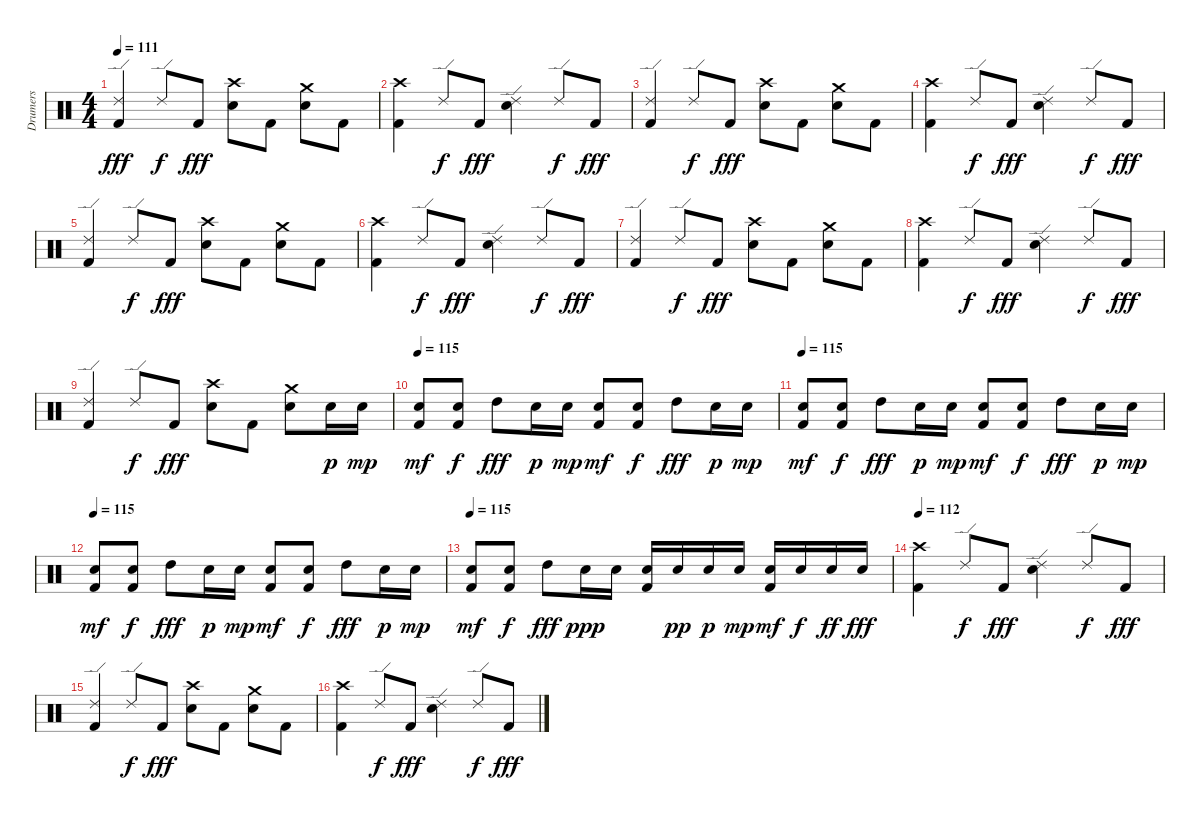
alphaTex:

\track ("Drumers" "Drumers") {instrument percussion}
\staff {score}
\articulation defaults
\ts (4 4)
\tempo 111
\clef neutral
\ks c
("Ride (edge) 2" "Kick (hit) 2").4{dy fff} "Ride (edge) 2".8{dy f} "Kick (hit) 2".8{dy fff} ("Crash high (hit)" "Electric Snare (hit)").8 "Kick (hit) 2".8 ("Crash medium (hit)" "Electric Snare (hit)").8 "Kick (hit) 2".8 |
("Crash high (hit)" "Kick (hit) 2").4 "Ride (edge) 2".8{dy f} "Kick (hit) 2".8{dy fff} ("Ride (edge) 2" "Electric Snare (hit)").4 "Ride (edge) 2".8{dy f} "Kick (hit) 2".8{dy fff} |
("Ride (edge) 2" "Kick (hit) 2").4 "Ride (edge) 2".8{dy f} "Kick (hit) 2".8{dy fff} ("Crash high (hit)" "Electric Snare (hit)").8 "Kick (hit) 2".8 ("Crash medium (hit)" "Electric Snare (hit)").8 "Kick (hit) 2".8 |
("Crash high (hit)" "Kick (hit) 2").4 "Ride (edge) 2".8{dy f} "Kick (hit) 2".8{dy fff} ("Ride (edge) 2" "Electric Snare (hit)").4 "Ride (edge) 2".8{dy f} "Kick (hit) 2".8{dy fff} |
("Ride (edge) 2" "Kick (hit) 2").4 "Ride (edge) 2".8{dy f} "Kick (hit) 2".8{dy fff} ("Crash high (hit)" "Electric Snare (hit)").8 "Kick (hit) 2".8 ("Crash medium (hit)" "Electric Snare (hit)").8 "Kick (hit) 2".8 |
("Crash high (hit)" "Kick (hit) 2").4 "Ride (edge) 2".8{dy f} "Kick (hit) 2".8{dy fff} ("Ride (edge) 2" "Electric Snare (hit)").4 "Ride (edge) 2".8{dy f} "Kick (hit) 2".8{dy fff} |
("Ride (edge) 2" "Kick (hit) 2").4 "Ride (edge) 2".8{dy f} "Kick (hit) 2".8{dy fff} ("Crash high (hit)" "Electric Snare (hit)").8 "Kick (hit) 2".8 ("Crash medium (hit)" "Electric Snare (hit)").8 "Kick (hit) 2".8 |
("Crash high (hit)" "Kick (hit) 2").4 "Ride (edge) 2".8{dy f} "Kick (hit) 2".8{dy fff} ("Ride (edge) 2" "Electric Snare (hit)").4 "Ride (edge) 2".8{dy f} "Kick (hit) 2".8{dy fff} |
("Ride (edge) 2" "Kick (hit) 2").4 "Ride (edge) 2".8{dy f} "Kick (hit) 2".8{dy fff} ("Crash high (hit)" "Electric Snare (hit)").8 "Kick (hit) 2".8 ("Crash medium (hit)" "Electric Snare (hit)").8 "Electric Snare (hit)".16{dy p} "Electric Snare (hit)".16{dy mp} |
\tempo 115
("Electric Snare (hit)" "Kick (hit) 2").8{dy mf} ("Electric Snare (hit)" "Kick (hit) 2").8{dy f} "High Tom (hit)".8{dy fff} "Electric Snare (hit)".16{dy p} "Electric Snare (hit)".16{dy mp} ("Electric Snare (hit)" "Kick (hit) 2").8{dy mf} ("Electric Snare (hit)" "Kick (hit) 2").8{dy f} "High Tom (hit)".8{dy fff} "Electric Snare (hit)".16{dy p} "Electric Snare (hit)".16{dy mp} |
\tempo 115
("Electric Snare (hit)" "Kick (hit) 2").8{dy mf} ("Electric Snare (hit)" "Kick (hit) 2").8{dy f} "High Tom (hit)".8{dy fff} "Electric Snare (hit)".16{dy p} "Electric Snare (hit)".16{dy mp} ("Electric Snare (hit)" "Kick (hit) 2").8{dy mf} ("Electric Snare (hit)" "Kick (hit) 2").8{dy f} "High Tom (hit)".8{dy fff} "Electric Snare (hit)".16{dy p} "Electric Snare (hit)".16{dy mp} |
\tempo 115
("Electric Snare (hit)" "Kick (hit) 2").8{dy mf} ("Electric Snare (hit)" "Kick (hit) 2").8{dy f} "High Tom (hit)".8{dy fff} "Electric Snare (hit)".16{dy p} "Electric Snare (hit)".16{dy mp} ("Electric Snare (hit)" "Kick (hit) 2").8{dy mf} ("Electric Snare (hit)" "Kick (hit) 2").8{dy f} "High Tom (hit)".8{dy fff} "Electric Snare (hit)".16{dy p} "Electric Snare (hit)".16{dy mp} |
\tempo 115
("Electric Snare (hit)" "Kick (hit) 2").8{dy mf} ("Electric Snare (hit)" "Kick (hit) 2").8{dy f} "High Tom (hit)".8{dy fff} "Electric Snare (hit)".16{dy ppp} "Electric Snare (hit)".16 ("Electric Snare (hit)" "Kick (hit) 2").16 "Electric Snare (hit)".16{dy pp} "Electric Snare (hit)".16{dy p} "Electric Snare (hit)".16{dy mp} ("Electric Snare (hit)" "Kick (hit) 2").16{dy mf} "Electric Snare (hit)".16{dy f} "Electric Snare (hit)".16{dy ff} "Electric Snare (hit)".16{dy fff} |
\section ("" "")
\tempo 112
("Crash high (hit)" "Kick (hit) 2").4 "Ride (edge) 2".8{dy f} "Kick (hit) 2".8{dy fff} ("Ride (edge) 2" "Electric Snare (hit)").4 "Ride (edge) 2".8{dy f} "Kick (hit) 2".8{dy fff} |
("Ride (edge) 2" "Kick (hit) 2").4 "Ride (edge) 2".8{dy f} "Kick (hit) 2".8{dy fff} ("Crash high (hit)" "Electric Snare (hit)").8 "Kick (hit) 2".8 ("Crash medium (hit)" "Electric Snare (hit)").8 "Kick (hit) 2".8 |
("Crash high (hit)" "Kick (hit) 2").4 "Ride (edge) 2".8{dy f} "Kick (hit) 2".8{dy fff} ("Ride (edge) 2" "Electric Snare (hit)").4 "Ride (edge) 2".8{dy f} "Kick (hit) 2".8{dy fff}
